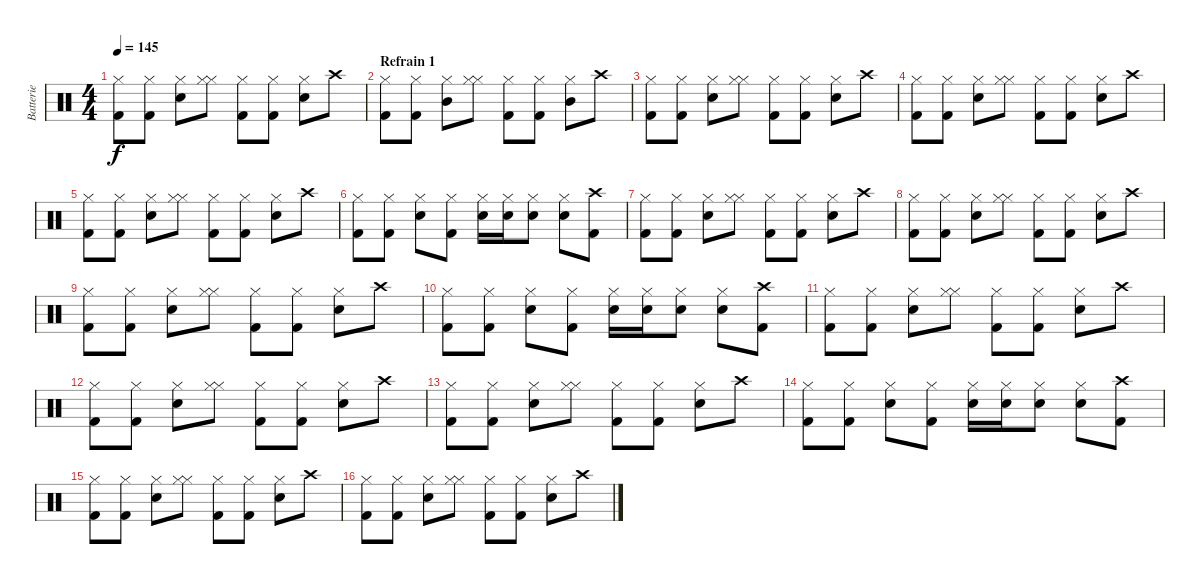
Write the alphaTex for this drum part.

\track ("Batterie" "Batterie") {instrument percussion}
\staff {score}
\articulation defaults
\ts (4 4)
\tempo 145
\clef neutral
\ks c
("Kick (hit) 2" "Hi-Hat (closed)").8{dy f} ("Kick (hit) 2" "Hi-Hat (closed)").8 ("Snare (hit) 2" "Hi-Hat (closed)").8 ("Hi-Hat (closed)" "Hi-Hat (closed)").8 ("Kick (hit) 2" "Hi-Hat (closed)").8 ("Kick (hit) 2" "Hi-Hat (closed)").8 ("Snare (hit) 2" "Hi-Hat (closed)").8 "Crash high (hit)".8 |
\section ("" "Refrain 1")
("Kick (hit) 2" "Hi-Hat (closed)").8 ("Kick (hit) 2" "Hi-Hat (closed)").8 ("Mid Tom (hit)" "Hi-Hat (closed)").8 ("Hi-Hat (closed)" "Hi-Hat (closed)").8 ("Kick (hit) 2" "Hi-Hat (closed)").8 ("Kick (hit) 2" "Hi-Hat (closed)").8 ("Mid Tom (hit)" "Hi-Hat (closed)").8 "Crash high (hit)".8 |
("Kick (hit) 2" "Hi-Hat (closed)").8 ("Kick (hit) 2" "Hi-Hat (closed)").8 ("Snare (hit) 2" "Hi-Hat (closed)").8 ("Hi-Hat (closed)" "Hi-Hat (closed)").8 ("Kick (hit) 2" "Hi-Hat (closed)").8 ("Kick (hit) 2" "Hi-Hat (closed)").8 ("Snare (hit) 2" "Hi-Hat (closed)").8 "Crash high (hit)".8 |
("Kick (hit) 2" "Hi-Hat (closed)").8 ("Kick (hit) 2" "Hi-Hat (closed)").8 ("Snare (hit) 2" "Hi-Hat (closed)").8 ("Hi-Hat (closed)" "Hi-Hat (closed)").8 ("Kick (hit) 2" "Hi-Hat (closed)").8 ("Kick (hit) 2" "Hi-Hat (closed)").8 ("Snare (hit) 2" "Hi-Hat (closed)").8 "Crash high (hit)".8 |
("Kick (hit) 2" "Hi-Hat (closed)").8 ("Kick (hit) 2" "Hi-Hat (closed)").8 ("Snare (hit) 2" "Hi-Hat (closed)").8 ("Hi-Hat (closed)" "Hi-Hat (closed)").8 ("Kick (hit) 2" "Hi-Hat (closed)").8 ("Kick (hit) 2" "Hi-Hat (closed)").8 ("Snare (hit) 2" "Hi-Hat (closed)").8 "Crash high (hit)".8 |
("Kick (hit) 2" "Hi-Hat (closed)").8 ("Kick (hit) 2" "Hi-Hat (closed)").8 ("Snare (hit) 2" "Hi-Hat (closed)").8 ("Kick (hit) 2" "Hi-Hat (closed)").8 ("Snare (hit) 2" "Hi-Hat (closed)").16 ("Snare (hit) 2" "Hi-Hat (closed)").16 ("Snare (hit) 2" "Hi-Hat (closed)").8 ("Snare (hit) 2" "Hi-Hat (closed)").8 ("Kick (hit) 2" "Crash high (hit)").8 |
("Kick (hit) 2" "Hi-Hat (closed)").8 ("Kick (hit) 2" "Hi-Hat (closed)").8 ("Snare (hit) 2" "Hi-Hat (closed)").8 ("Hi-Hat (closed)" "Hi-Hat (closed)").8 ("Kick (hit) 2" "Hi-Hat (closed)").8 ("Kick (hit) 2" "Hi-Hat (closed)").8 ("Snare (hit) 2" "Hi-Hat (closed)").8 "Crash high (hit)".8 |
("Kick (hit) 2" "Hi-Hat (closed)").8 ("Kick (hit) 2" "Hi-Hat (closed)").8 ("Snare (hit) 2" "Hi-Hat (closed)").8 ("Hi-Hat (closed)" "Hi-Hat (closed)").8 ("Kick (hit) 2" "Hi-Hat (closed)").8 ("Kick (hit) 2" "Hi-Hat (closed)").8 ("Snare (hit) 2" "Hi-Hat (closed)").8 "Crash high (hit)".8 |
("Kick (hit) 2" "Hi-Hat (closed)").8 ("Kick (hit) 2" "Hi-Hat (closed)").8 ("Snare (hit) 2" "Hi-Hat (closed)").8 ("Hi-Hat (closed)" "Hi-Hat (closed)").8 ("Kick (hit) 2" "Hi-Hat (closed)").8 ("Kick (hit) 2" "Hi-Hat (closed)").8 ("Snare (hit) 2" "Hi-Hat (closed)").8 "Crash high (hit)".8 |
("Kick (hit) 2" "Hi-Hat (closed)").8 ("Kick (hit) 2" "Hi-Hat (closed)").8 ("Snare (hit) 2" "Hi-Hat (closed)").8 ("Kick (hit) 2" "Hi-Hat (closed)").8 ("Snare (hit) 2" "Hi-Hat (closed)").16 ("Snare (hit) 2" "Hi-Hat (closed)").16 ("Snare (hit) 2" "Hi-Hat (closed)").8 ("Snare (hit) 2" "Hi-Hat (closed)").8 ("Kick (hit) 2" "Crash high (hit)").8 |
("Kick (hit) 2" "Hi-Hat (closed)").8 ("Kick (hit) 2" "Hi-Hat (closed)").8 ("Snare (hit) 2" "Hi-Hat (closed)").8 ("Hi-Hat (closed)" "Hi-Hat (closed)").8 ("Kick (hit) 2" "Hi-Hat (closed)").8 ("Kick (hit) 2" "Hi-Hat (closed)").8 ("Snare (hit) 2" "Hi-Hat (closed)").8 "Crash high (hit)".8 |
("Kick (hit) 2" "Hi-Hat (closed)").8 ("Kick (hit) 2" "Hi-Hat (closed)").8 ("Snare (hit) 2" "Hi-Hat (closed)").8 ("Hi-Hat (closed)" "Hi-Hat (closed)").8 ("Kick (hit) 2" "Hi-Hat (closed)").8 ("Kick (hit) 2" "Hi-Hat (closed)").8 ("Snare (hit) 2" "Hi-Hat (closed)").8 "Crash high (hit)".8 |
("Kick (hit) 2" "Hi-Hat (closed)").8 ("Kick (hit) 2" "Hi-Hat (closed)").8 ("Snare (hit) 2" "Hi-Hat (closed)").8 ("Hi-Hat (closed)" "Hi-Hat (closed)").8 ("Kick (hit) 2" "Hi-Hat (closed)").8 ("Kick (hit) 2" "Hi-Hat (closed)").8 ("Snare (hit) 2" "Hi-Hat (closed)").8 "Crash high (hit)".8 |
("Kick (hit) 2" "Hi-Hat (closed)").8 ("Kick (hit) 2" "Hi-Hat (closed)").8 ("Snare (hit) 2" "Hi-Hat (closed)").8 ("Kick (hit) 2" "Hi-Hat (closed)").8 ("Snare (hit) 2" "Hi-Hat (closed)").16 ("Snare (hit) 2" "Hi-Hat (closed)").16 ("Snare (hit) 2" "Hi-Hat (closed)").8 ("Snare (hit) 2" "Hi-Hat (closed)").8 ("Kick (hit) 2" "Crash high (hit)").8 |
("Kick (hit) 2" "Hi-Hat (closed)").8 ("Kick (hit) 2" "Hi-Hat (closed)").8 ("Snare (hit) 2" "Hi-Hat (closed)").8 ("Hi-Hat (closed)" "Hi-Hat (closed)").8 ("Kick (hit) 2" "Hi-Hat (closed)").8 ("Kick (hit) 2" "Hi-Hat (closed)").8 ("Snare (hit) 2" "Hi-Hat (closed)").8 "Crash high (hit)".8 |
("Kick (hit) 2" "Hi-Hat (closed)").8 ("Kick (hit) 2" "Hi-Hat (closed)").8 ("Snare (hit) 2" "Hi-Hat (closed)").8 ("Hi-Hat (closed)" "Hi-Hat (closed)").8 ("Kick (hit) 2" "Hi-Hat (closed)").8 ("Kick (hit) 2" "Hi-Hat (closed)").8 ("Snare (hit) 2" "Hi-Hat (closed)").8 "Crash high (hit)".8
